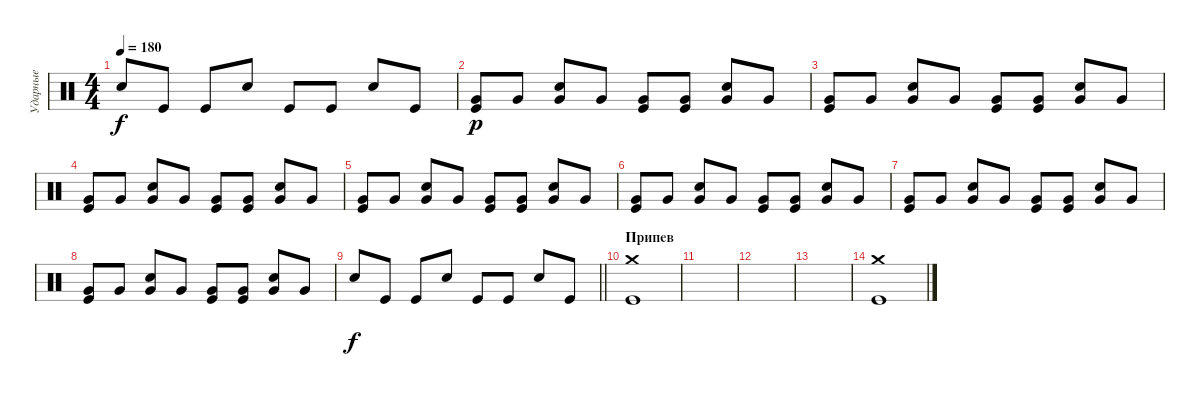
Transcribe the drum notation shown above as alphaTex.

\track ("Ударные" "Ударные") {instrument percussion}
\staff {score}
\articulation defaults
\ts (4 4)
\tempo 180
\clef neutral
\ks c "Electric Snare (hit)".8{dy f} "Kick (hit)".8 "Kick (hit)".8 "Electric Snare (hit)".8 "Kick (hit)".8 "Kick (hit)".8 "Electric Snare (hit)".8 "Kick (hit)".8
|
("Very Low Tom (hit)" "Kick (hit)").8{dy p} "Very Low Tom (hit)".8 ("Very Low Tom (hit)" "Electric Snare (hit)").8 "Very Low Tom (hit)".8 ("Very Low Tom (hit)" "Kick (hit)").8 ("Very Low Tom (hit)" "Kick (hit)").8 ("Very Low Tom (hit)" "Electric Snare (hit)").8 "Very Low Tom (hit)".8 |
("Very Low Tom (hit)" "Kick (hit)").8 "Very Low Tom (hit)".8 ("Very Low Tom (hit)" "Electric Snare (hit)").8 "Very Low Tom (hit)".8 ("Very Low Tom (hit)" "Kick (hit)").8 ("Very Low Tom (hit)" "Kick (hit)").8 ("Very Low Tom (hit)" "Electric Snare (hit)").8 "Very Low Tom (hit)".8 |
("Very Low Tom (hit)" "Kick (hit)").8 "Very Low Tom (hit)".8 ("Very Low Tom (hit)" "Electric Snare (hit)").8 "Very Low Tom (hit)".8 ("Very Low Tom (hit)" "Kick (hit)").8 ("Very Low Tom (hit)" "Kick (hit)").8 ("Very Low Tom (hit)" "Electric Snare (hit)").8 "Very Low Tom (hit)".8 |
("Very Low Tom (hit)" "Kick (hit)").8 "Very Low Tom (hit)".8 ("Very Low Tom (hit)" "Electric Snare (hit)").8 "Very Low Tom (hit)".8 ("Very Low Tom (hit)" "Kick (hit)").8 ("Very Low Tom (hit)" "Kick (hit)").8 ("Very Low Tom (hit)" "Electric Snare (hit)").8 "Very Low Tom (hit)".8 |
("Very Low Tom (hit)" "Kick (hit)").8 "Very Low Tom (hit)".8 ("Very Low Tom (hit)" "Electric Snare (hit)").8 "Very Low Tom (hit)".8 ("Very Low Tom (hit)" "Kick (hit)").8 ("Very Low Tom (hit)" "Kick (hit)").8 ("Very Low Tom (hit)" "Electric Snare (hit)").8 "Very Low Tom (hit)".8 |
("Very Low Tom (hit)" "Kick (hit)").8 "Very Low Tom (hit)".8 ("Very Low Tom (hit)" "Electric Snare (hit)").8 "Very Low Tom (hit)".8 ("Very Low Tom (hit)" "Kick (hit)").8 ("Very Low Tom (hit)" "Kick (hit)").8 ("Very Low Tom (hit)" "Electric Snare (hit)").8 "Very Low Tom (hit)".8 |
("Very Low Tom (hit)" "Kick (hit)").8 "Very Low Tom (hit)".8 ("Very Low Tom (hit)" "Electric Snare (hit)").8 "Very Low Tom (hit)".8 ("Very Low Tom (hit)" "Kick (hit)").8 ("Very Low Tom (hit)" "Kick (hit)").8 ("Very Low Tom (hit)" "Electric Snare (hit)").8 "Very Low Tom (hit)".8 |
\barLineRight lightlight "Electric Snare (hit)".8{dy f} "Kick (hit)".8 "Kick (hit)".8 "Electric Snare (hit)".8 "Kick (hit)".8 "Kick (hit)".8 "Electric Snare (hit)".8 "Kick (hit)".8
|
\section ("" "Припев")
("Crash medium (hit)" "Kick (hit)").1 |
|
|
|
("Crash medium (hit)" "Kick (hit)").1
